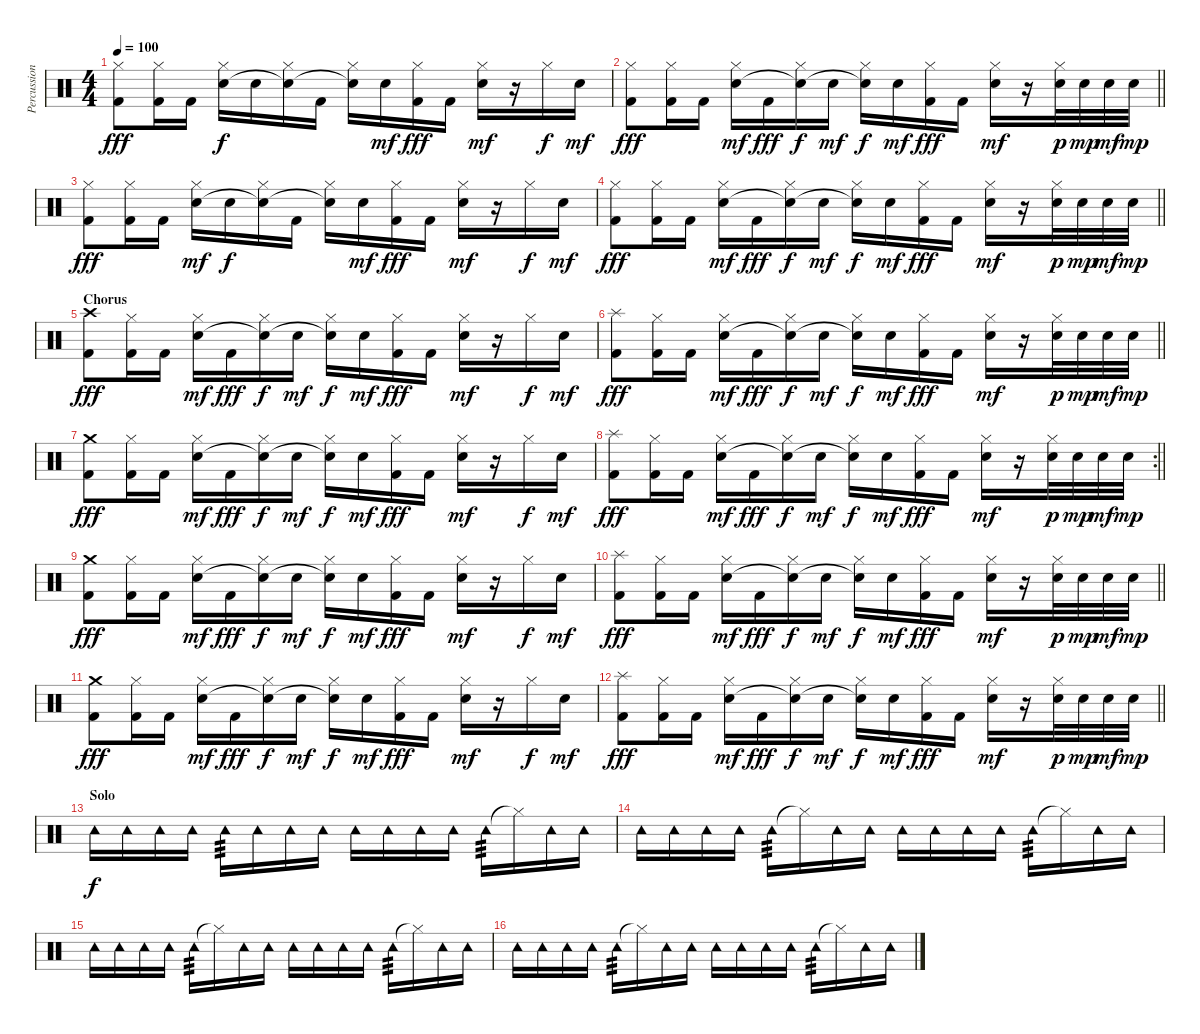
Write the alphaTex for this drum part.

\track ("Percussioni" "Percussion") {instrument percussion}
\staff {score}
\articulation defaults
\ts (4 4)
\tempo 100
\clef neutral
\ks c
("Hi-Hat (closed)" "Kick (hit) 2").8{dy fff} ("Hi-Hat (closed)" "Kick (hit) 2").16 "Kick (hit) 2".16 ("Hi-Hat (closed)" "Snare (hit) 2").16{dy f} "Snare (hit) 2".16 ("Hi-Hat (closed)" "Snare (hit)"{t}).16 "Kick (hit) 2".16 ("Hi-Hat (closed)" "Snare (hit)"{t}).16 "Snare (hit) 2".16{dy mf} ("Hi-Hat (closed)" "Kick (hit) 2").16{dy fff} "Kick (hit) 2".16 ("Hi-Hat (closed)" "Snare (hit) 2").16{dy mf} r.16 "Hi-Hat (closed)".16{dy f} "Snare (hit) 2".16{dy mf} |
\barLineRight lightlight
("Hi-Hat (closed)" "Kick (hit) 2").8{dy fff} ("Hi-Hat (closed)" "Kick (hit) 2").16 "Kick (hit) 2".16 ("Hi-Hat (closed)" "Snare (hit) 2").16{dy mf} "Kick (hit) 2".16{dy fff} ("Hi-Hat (closed)" "Snare (hit)"{t}).16{dy f} "Snare (hit) 2".16{dy mf} ("Hi-Hat (closed)" "Snare (hit)"{t}).16{dy f} "Snare (hit) 2".16{dy mf} ("Hi-Hat (closed)" "Kick (hit) 2").16{dy fff} "Kick (hit) 2".16 ("Hi-Hat (closed)" "Snare (hit) 2").16{dy mf} r.16 ("Hi-Hat (closed)" "Snare (hit) 2").32{dy p} "Snare (hit) 2".32{dy mp} "Snare (hit) 2".32{dy mf} "Snare (hit) 2".32{dy mp} |
("Hi-Hat (closed)" "Kick (hit) 2").8{dy fff} ("Hi-Hat (closed)" "Kick (hit) 2").16 "Kick (hit) 2".16 ("Hi-Hat (closed)" "Snare (hit) 2").16{dy mf} "Snare (hit) 2".16{dy f} ("Hi-Hat (closed)" "Snare (hit)"{t}).16 "Kick (hit) 2".16 ("Hi-Hat (closed)" "Snare (hit)"{t}).16 "Snare (hit) 2".16{dy mf} ("Hi-Hat (closed)" "Kick (hit) 2").16{dy fff} "Kick (hit) 2".16 ("Hi-Hat (closed)" "Snare (hit) 2").16{dy mf} r.16 "Hi-Hat (closed)".16{dy f} "Snare (hit) 2".16{dy mf} |
\barLineRight lightlight
("Hi-Hat (closed)" "Kick (hit) 2").8{dy fff} ("Hi-Hat (closed)" "Kick (hit) 2").16 "Kick (hit) 2".16 ("Hi-Hat (closed)" "Snare (hit) 2").16{dy mf} "Kick (hit) 2".16{dy fff} ("Hi-Hat (closed)" "Snare (hit)"{t}).16{dy f} "Snare (hit) 2".16{dy mf} ("Hi-Hat (closed)" "Snare (hit)"{t}).16{dy f} "Snare (hit) 2".16{dy mf} ("Hi-Hat (closed)" "Kick (hit) 2").16{dy fff} "Kick (hit) 2".16 ("Hi-Hat (closed)" "Snare (hit) 2").16{dy mf} r.16 ("Hi-Hat (closed)" "Snare (hit) 2").32{dy p} "Snare (hit) 2".32{dy mp} "Snare (hit) 2".32{dy mf} "Snare (hit) 2".32{dy mp} |
\section ("" "Chorus")
("Crash high (hit)" "Kick (hit) 2").8{dy fff} ("Hi-Hat (closed)" "Kick (hit) 2").16 "Kick (hit) 2".16 ("Hi-Hat (closed)" "Snare (hit) 2").16{dy mf} "Kick (hit) 2".16{dy fff} ("Hi-Hat (closed)" "Snare (hit)"{t}).16{dy f} "Snare (hit) 2".16{dy mf} ("Hi-Hat (closed)" "Snare (hit)"{t}).16{dy f} "Snare (hit) 2".16{dy mf} ("Hi-Hat (closed)" "Kick (hit) 2").16{dy fff} "Kick (hit) 2".16 ("Hi-Hat (closed)" "Snare (hit) 2").16{dy mf} r.16 "Hi-Hat (closed)".16{dy f} "Snare (hit) 2".16{dy mf} |
\barLineRight lightlight
("Splash (hit)" "Kick (hit) 2").8{dy fff} ("Hi-Hat (closed)" "Kick (hit) 2").16 "Kick (hit) 2".16 ("Hi-Hat (closed)" "Snare (hit) 2").16{dy mf} "Kick (hit) 2".16{dy fff} ("Hi-Hat (closed)" "Snare (hit)"{t}).16{dy f} "Snare (hit) 2".16{dy mf} ("Hi-Hat (closed)" "Snare (hit)"{t}).16{dy f} "Snare (hit) 2".16{dy mf} ("Hi-Hat (closed)" "Kick (hit) 2").16{dy fff} "Kick (hit) 2".16 ("Hi-Hat (closed)" "Snare (hit) 2").16{dy mf} r.16 ("Hi-Hat (closed)" "Snare (hit) 2").32{dy p} "Snare (hit) 2".32{dy mp} "Snare (hit) 2".32{dy mf} "Snare (hit) 2".32{dy mp} |
("Crash medium (hit)" "Kick (hit) 2").8{dy fff} ("Hi-Hat (closed)" "Kick (hit) 2").16 "Kick (hit) 2".16 ("Hi-Hat (closed)" "Snare (hit) 2").16{dy mf} "Kick (hit) 2".16{dy fff} ("Hi-Hat (closed)" "Snare (hit)"{t}).16{dy f} "Snare (hit) 2".16{dy mf} ("Hi-Hat (closed)" "Snare (hit)"{t}).16{dy f} "Snare (hit) 2".16{dy mf} ("Hi-Hat (closed)" "Kick (hit) 2").16{dy fff} "Kick (hit) 2".16 ("Hi-Hat (closed)" "Snare (hit) 2").16{dy mf} r.16 "Hi-Hat (closed)".16{dy f} "Snare (hit) 2".16{dy mf} |
\rc 2
\barLineRight lightlight
("Splash (hit)" "Kick (hit) 2").8{dy fff} ("Hi-Hat (closed)" "Kick (hit) 2").16 "Kick (hit) 2".16 ("Hi-Hat (closed)" "Snare (hit) 2").16{dy mf} "Kick (hit) 2".16{dy fff} ("Hi-Hat (closed)" "Snare (hit)"{t}).16{dy f} "Snare (hit) 2".16{dy mf} ("Hi-Hat (closed)" "Snare (hit)"{t}).16{dy f} "Snare (hit) 2".16{dy mf} ("Hi-Hat (closed)" "Kick (hit) 2").16{dy fff} "Kick (hit) 2".16 ("Hi-Hat (closed)" "Snare (hit) 2").16{dy mf} r.16 ("Hi-Hat (closed)" "Snare (hit) 2").32{dy p} "Snare (hit) 2".32{dy mp} "Snare (hit) 2".32{dy mf} "Snare (hit) 2".32{dy mp} |
("Crash medium (hit)" "Kick (hit) 2").8{dy fff} ("Hi-Hat (closed)" "Kick (hit) 2").16 "Kick (hit) 2".16 ("Hi-Hat (closed)" "Snare (hit) 2").16{dy mf} "Kick (hit) 2".16{dy fff} ("Hi-Hat (closed)" "Snare (hit)"{t}).16{dy f} "Snare (hit) 2".16{dy mf} ("Hi-Hat (closed)" "Snare (hit)"{t}).16{dy f} "Snare (hit) 2".16{dy mf} ("Hi-Hat (closed)" "Kick (hit) 2").16{dy fff} "Kick (hit) 2".16 ("Hi-Hat (closed)" "Snare (hit) 2").16{dy mf} r.16 "Hi-Hat (closed)".16{dy f} "Snare (hit) 2".16{dy mf} |
\barLineRight lightlight
("Splash (hit)" "Kick (hit) 2").8{dy fff} ("Hi-Hat (closed)" "Kick (hit) 2").16 "Kick (hit) 2".16 ("Hi-Hat (closed)" "Snare (hit) 2").16{dy mf} "Kick (hit) 2".16{dy fff} ("Hi-Hat (closed)" "Snare (hit)"{t}).16{dy f} "Snare (hit) 2".16{dy mf} ("Hi-Hat (closed)" "Snare (hit)"{t}).16{dy f} "Snare (hit) 2".16{dy mf} ("Hi-Hat (closed)" "Kick (hit) 2").16{dy fff} "Kick (hit) 2".16 ("Hi-Hat (closed)" "Snare (hit) 2").16{dy mf} r.16 ("Hi-Hat (closed)" "Snare (hit) 2").32{dy p} "Snare (hit) 2".32{dy mp} "Snare (hit) 2".32{dy mf} "Snare (hit) 2".32{dy mp} |
("Crash medium (hit)" "Kick (hit) 2").8{dy fff} ("Hi-Hat (closed)" "Kick (hit) 2").16 "Kick (hit) 2".16 ("Hi-Hat (closed)" "Snare (hit) 2").16{dy mf} "Kick (hit) 2".16{dy fff} ("Hi-Hat (closed)" "Snare (hit)"{t}).16{dy f} "Snare (hit) 2".16{dy mf} ("Hi-Hat (closed)" "Snare (hit)"{t}).16{dy f} "Snare (hit) 2".16{dy mf} ("Hi-Hat (closed)" "Kick (hit) 2").16{dy fff} "Kick (hit) 2".16 ("Hi-Hat (closed)" "Snare (hit) 2").16{dy mf} r.16 "Hi-Hat (closed)".16{dy f} "Snare (hit) 2".16{dy mf} |
\barLineRight lightlight
("Splash (hit)" "Kick (hit) 2").8{dy fff} ("Hi-Hat (closed)" "Kick (hit) 2").16 "Kick (hit) 2".16 ("Hi-Hat (closed)" "Snare (hit) 2").16{dy mf} "Kick (hit) 2".16{dy fff} ("Hi-Hat (closed)" "Snare (hit)"{t}).16{dy f} "Snare (hit) 2".16{dy mf} ("Hi-Hat (closed)" "Snare (hit)"{t}).16{dy f} "Snare (hit) 2".16{dy mf} ("Hi-Hat (closed)" "Kick (hit) 2").16{dy fff} "Kick (hit) 2".16 ("Hi-Hat (closed)" "Snare (hit) 2").16{dy mf} r.16 ("Hi-Hat (closed)" "Snare (hit) 2").32{dy p} "Snare (hit) 2".32{dy mp} "Snare (hit) 2".32{dy mf} "Snare (hit) 2".32{dy mp} |
\section ("" "Solo")
"Tambourine (hit)".16{dy f volume 6} "Tambourine (hit)".16 "Tambourine (hit)".16 "Tambourine (hit)".16 "Tambourine (hit)".16{tp 3} "Tambourine (hit)".16 "Tambourine (hit)".16 "Tambourine (hit)".16 "Tambourine (hit)".16 "Tambourine (hit)".16 "Tambourine (hit)".16 "Tambourine (hit)".16 "Tambourine (hit)".16{tp 3} "Hi-Hat (closed)"{t}.16 "Tambourine (hit)".16 "Tambourine (hit)".16 |
"Tambourine (hit)".16 "Tambourine (hit)".16 "Tambourine (hit)".16 "Tambourine (hit)".16 "Tambourine (hit)".16{tp 3} "Hi-Hat (closed)"{t}.16 "Tambourine (hit)".16 "Tambourine (hit)".16 "Tambourine (hit)".16 "Tambourine (hit)".16 "Tambourine (hit)".16 "Tambourine (hit)".16 "Tambourine (hit)".16{tp 3} "Hi-Hat (closed)"{t}.16 "Tambourine (hit)".16 "Tambourine (hit)".16 |
"Tambourine (hit)".16 "Tambourine (hit)".16 "Tambourine (hit)".16 "Tambourine (hit)".16 "Tambourine (hit)".16{tp 3} "Hi-Hat (closed)"{t}.16 "Tambourine (hit)".16 "Tambourine (hit)".16 "Tambourine (hit)".16 "Tambourine (hit)".16 "Tambourine (hit)".16 "Tambourine (hit)".16 "Tambourine (hit)".16{tp 3} "Hi-Hat (closed)"{t}.16 "Tambourine (hit)".16 "Tambourine (hit)".16 |
"Tambourine (hit)".16 "Tambourine (hit)".16 "Tambourine (hit)".16 "Tambourine (hit)".16 "Tambourine (hit)".16{tp 3} "Hi-Hat (closed)"{t}.16 "Tambourine (hit)".16 "Tambourine (hit)".16 "Tambourine (hit)".16 "Tambourine (hit)".16 "Tambourine (hit)".16 "Tambourine (hit)".16 "Tambourine (hit)".16{tp 3} "Hi-Hat (closed)"{t}.16 "Tambourine (hit)".16 "Tambourine (hit)".16
